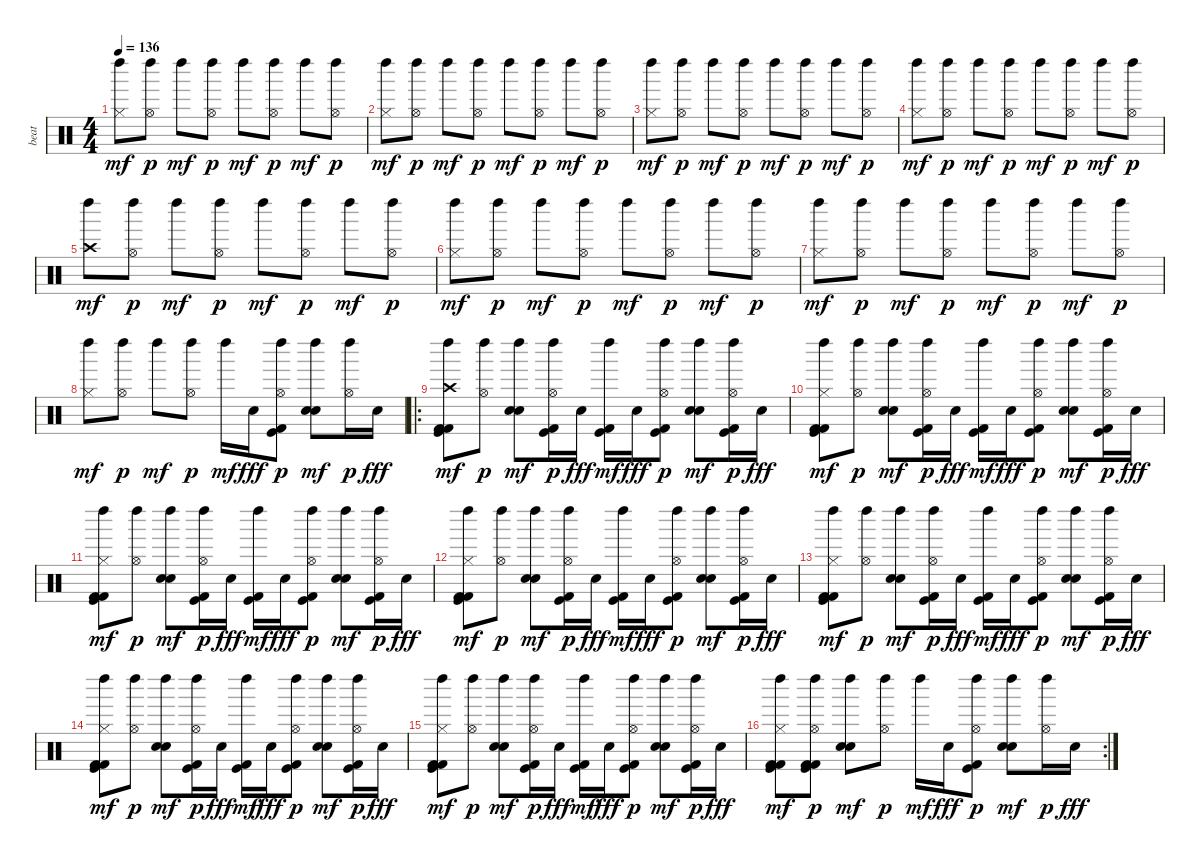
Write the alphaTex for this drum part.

\track ("beat" "beat") {instrument percussion}
\staff {score}
\articulation defaults
\ts (4 4)
\tempo 136
\clef neutral
\ks c
("Hi-Hat (closed)" "Left Maraca (hit)").8{dy mf} ("Hi-Hat (open)" "Left Maraca (hit)").8{dy p} "Left Maraca (hit)".8{dy mf} ("Hi-Hat (open)" "Left Maraca (hit)").8{dy p} "Left Maraca (hit)".8{dy mf} ("Hi-Hat (open)" "Left Maraca (hit)").8{dy p} "Left Maraca (hit)".8{dy mf} ("Hi-Hat (open)" "Left Maraca (hit)").8{dy p} |
("Hi-Hat (closed)" "Left Maraca (hit)").8{dy mf} ("Hi-Hat (open)" "Left Maraca (hit)").8{dy p} "Left Maraca (hit)".8{dy mf} ("Hi-Hat (open)" "Left Maraca (hit)").8{dy p} "Left Maraca (hit)".8{dy mf} ("Hi-Hat (open)" "Left Maraca (hit)").8{dy p} "Left Maraca (hit)".8{dy mf} ("Hi-Hat (open)" "Left Maraca (hit)").8{dy p} |
("Hi-Hat (closed)" "Left Maraca (hit)").8{dy mf} ("Hi-Hat (open)" "Left Maraca (hit)").8{dy p} "Left Maraca (hit)".8{dy mf} ("Hi-Hat (open)" "Left Maraca (hit)").8{dy p} "Left Maraca (hit)".8{dy mf} ("Hi-Hat (open)" "Left Maraca (hit)").8{dy p} "Left Maraca (hit)".8{dy mf} ("Hi-Hat (open)" "Left Maraca (hit)").8{dy p} |
("Hi-Hat (closed)" "Left Maraca (hit)").8{dy mf} ("Hi-Hat (open)" "Left Maraca (hit)").8{dy p} "Left Maraca (hit)".8{dy mf} ("Hi-Hat (open)" "Left Maraca (hit)").8{dy p} "Left Maraca (hit)".8{dy mf} ("Hi-Hat (open)" "Left Maraca (hit)").8{dy p} "Left Maraca (hit)".8{dy mf} ("Hi-Hat (open)" "Left Maraca (hit)").8{dy p} |
("Crash high (hit)" "Left Maraca (hit)").8{dy mf} ("Hi-Hat (open)" "Left Maraca (hit)").8{dy p} "Left Maraca (hit)".8{dy mf} ("Hi-Hat (open)" "Left Maraca (hit)").8{dy p} "Left Maraca (hit)".8{dy mf} ("Hi-Hat (open)" "Left Maraca (hit)").8{dy p} "Left Maraca (hit)".8{dy mf} ("Hi-Hat (open)" "Left Maraca (hit)").8{dy p} |
("Hi-Hat (closed)" "Left Maraca (hit)").8{dy mf} ("Hi-Hat (open)" "Left Maraca (hit)").8{dy p} "Left Maraca (hit)".8{dy mf} ("Hi-Hat (open)" "Left Maraca (hit)").8{dy p} "Left Maraca (hit)".8{dy mf} ("Hi-Hat (open)" "Left Maraca (hit)").8{dy p} "Left Maraca (hit)".8{dy mf} ("Hi-Hat (open)" "Left Maraca (hit)").8{dy p} |
("Hi-Hat (closed)" "Left Maraca (hit)").8{dy mf} ("Hi-Hat (open)" "Left Maraca (hit)").8{dy p} "Left Maraca (hit)".8{dy mf} ("Hi-Hat (open)" "Left Maraca (hit)").8{dy p} "Left Maraca (hit)".8{dy mf} ("Hi-Hat (open)" "Left Maraca (hit)").8{dy p} "Left Maraca (hit)".8{dy mf} ("Hi-Hat (open)" "Left Maraca (hit)").8{dy p} |
("Hi-Hat (closed)" "Left Maraca (hit)").8{dy mf} ("Hi-Hat (open)" "Left Maraca (hit)").8{dy p} "Left Maraca (hit)".8{dy mf} ("Hi-Hat (open)" "Left Maraca (hit)").8{dy p} "Left Maraca (hit)".16{dy mf} "Snare (hit) 2".16{dy fff} ("Hi-Hat (open)" "Kick (hit)" "Kick (hit) 2" "Left Maraca (hit)").8{dy p} ("Snare (hit) 2" "Electric Snare (hit)" "Left Maraca (hit)").8{dy mf} ("Hi-Hat (open)" "Left Maraca (hit)").16{dy p} "Snare (hit) 2".16{dy fff} |
\ro
("Crash high (hit)" "Kick (hit)" "Kick (hit) 2" "Kick (hit) 2" "Left Maraca (hit)").8{dy mf} ("Hi-Hat (open)" "Left Maraca (hit)").8{dy p} ("Snare (hit) 2" "Electric Snare (hit)" "Left Maraca (hit)").8{dy mf} ("Hi-Hat (open)" "Kick (hit)" "Kick (hit) 2" "Left Maraca (hit)").16{dy p} "Snare (hit) 2".16{dy fff} ("Kick (hit)" "Kick (hit) 2" "Left Maraca (hit)").16{dy mf} "Snare (hit) 2".16{dy fff} ("Hi-Hat (open)" "Kick (hit)" "Kick (hit) 2" "Left Maraca (hit)").8{dy p} ("Snare (hit) 2" "Electric Snare (hit)" "Left Maraca (hit)").8{dy mf} ("Hi-Hat (open)" "Kick (hit)" "Kick (hit) 2" "Left Maraca (hit)").16{dy p} "Snare (hit) 2".16{dy fff} |
("Hi-Hat (closed)" "Kick (hit)" "Kick (hit) 2" "Kick (hit) 2" "Left Maraca (hit)").8{dy mf} ("Hi-Hat (open)" "Left Maraca (hit)").8{dy p} ("Snare (hit) 2" "Electric Snare (hit)" "Left Maraca (hit)").8{dy mf} ("Hi-Hat (open)" "Kick (hit)" "Kick (hit) 2" "Left Maraca (hit)").16{dy p} "Snare (hit) 2".16{dy fff} ("Kick (hit)" "Kick (hit) 2" "Left Maraca (hit)").16{dy mf} "Snare (hit) 2".16{dy fff} ("Hi-Hat (open)" "Kick (hit)" "Kick (hit) 2" "Left Maraca (hit)").8{dy p} ("Snare (hit) 2" "Electric Snare (hit)" "Left Maraca (hit)").8{dy mf} ("Hi-Hat (open)" "Kick (hit)" "Kick (hit) 2" "Left Maraca (hit)").16{dy p} "Snare (hit) 2".16{dy fff} |
("Hi-Hat (closed)" "Kick (hit)" "Kick (hit) 2" "Kick (hit) 2" "Left Maraca (hit)").8{dy mf} ("Hi-Hat (open)" "Left Maraca (hit)").8{dy p} ("Snare (hit) 2" "Electric Snare (hit)" "Left Maraca (hit)").8{dy mf} ("Hi-Hat (open)" "Kick (hit)" "Kick (hit) 2" "Left Maraca (hit)").16{dy p} "Snare (hit) 2".16{dy fff} ("Kick (hit)" "Kick (hit) 2" "Left Maraca (hit)").16{dy mf} "Snare (hit) 2".16{dy fff} ("Hi-Hat (open)" "Kick (hit)" "Kick (hit) 2" "Left Maraca (hit)").8{dy p} ("Snare (hit) 2" "Electric Snare (hit)" "Left Maraca (hit)").8{dy mf} ("Hi-Hat (open)" "Kick (hit)" "Kick (hit) 2" "Left Maraca (hit)").16{dy p} "Snare (hit) 2".16{dy fff} |
("Hi-Hat (closed)" "Kick (hit)" "Kick (hit) 2" "Kick (hit) 2" "Left Maraca (hit)").8{dy mf} ("Hi-Hat (open)" "Left Maraca (hit)").8{dy p} ("Snare (hit) 2" "Electric Snare (hit)" "Left Maraca (hit)").8{dy mf} ("Hi-Hat (open)" "Kick (hit)" "Kick (hit) 2" "Left Maraca (hit)").16{dy p} "Snare (hit) 2".16{dy fff} ("Kick (hit)" "Kick (hit) 2" "Left Maraca (hit)").16{dy mf} "Snare (hit) 2".16{dy fff} ("Hi-Hat (open)" "Kick (hit)" "Kick (hit) 2" "Left Maraca (hit)").8{dy p} ("Snare (hit) 2" "Electric Snare (hit)" "Left Maraca (hit)").8{dy mf} ("Hi-Hat (open)" "Kick (hit)" "Kick (hit) 2" "Left Maraca (hit)").16{dy p} "Snare (hit) 2".16{dy fff} |
("Hi-Hat (closed)" "Kick (hit)" "Kick (hit) 2" "Kick (hit) 2" "Left Maraca (hit)").8{dy mf} ("Hi-Hat (open)" "Left Maraca (hit)").8{dy p} ("Snare (hit) 2" "Electric Snare (hit)" "Left Maraca (hit)").8{dy mf} ("Hi-Hat (open)" "Kick (hit)" "Kick (hit) 2" "Left Maraca (hit)").16{dy p} "Snare (hit) 2".16{dy fff} ("Kick (hit)" "Kick (hit) 2" "Left Maraca (hit)").16{dy mf} "Snare (hit) 2".16{dy fff} ("Hi-Hat (open)" "Kick (hit)" "Kick (hit) 2" "Left Maraca (hit)").8{dy p} ("Snare (hit) 2" "Electric Snare (hit)" "Left Maraca (hit)").8{dy mf} ("Hi-Hat (open)" "Kick (hit)" "Kick (hit) 2" "Left Maraca (hit)").16{dy p} "Snare (hit) 2".16{dy fff} |
("Hi-Hat (closed)" "Kick (hit)" "Kick (hit) 2" "Kick (hit) 2" "Left Maraca (hit)").8{dy mf} ("Hi-Hat (open)" "Left Maraca (hit)").8{dy p} ("Snare (hit) 2" "Electric Snare (hit)" "Left Maraca (hit)").8{dy mf} ("Hi-Hat (open)" "Kick (hit)" "Kick (hit) 2" "Left Maraca (hit)").16{dy p} "Snare (hit) 2".16{dy fff} ("Kick (hit)" "Kick (hit) 2" "Left Maraca (hit)").16{dy mf} "Snare (hit) 2".16{dy fff} ("Hi-Hat (open)" "Kick (hit)" "Kick (hit) 2" "Left Maraca (hit)").8{dy p} ("Snare (hit) 2" "Electric Snare (hit)" "Left Maraca (hit)").8{dy mf} ("Hi-Hat (open)" "Kick (hit)" "Kick (hit) 2" "Left Maraca (hit)").16{dy p} "Snare (hit) 2".16{dy fff} |
("Hi-Hat (closed)" "Kick (hit)" "Kick (hit) 2" "Kick (hit) 2" "Left Maraca (hit)").8{dy mf} ("Hi-Hat (open)" "Left Maraca (hit)").8{dy p} ("Snare (hit) 2" "Electric Snare (hit)" "Left Maraca (hit)").8{dy mf} ("Hi-Hat (open)" "Kick (hit)" "Kick (hit) 2" "Left Maraca (hit)").16{dy p} "Snare (hit) 2".16{dy fff} ("Kick (hit)" "Kick (hit) 2" "Left Maraca (hit)").16{dy mf} "Snare (hit) 2".16{dy fff} ("Hi-Hat (open)" "Kick (hit)" "Kick (hit) 2" "Left Maraca (hit)").8{dy p} ("Snare (hit) 2" "Electric Snare (hit)" "Left Maraca (hit)").8{dy mf} ("Hi-Hat (open)" "Kick (hit)" "Kick (hit) 2" "Left Maraca (hit)").16{dy p} "Snare (hit) 2".16{dy fff} |
\rc 2
("Hi-Hat (closed)" "Kick (hit)" "Kick (hit) 2" "Kick (hit) 2" "Left Maraca (hit)").8{dy mf} ("Hi-Hat (open)" "Kick (hit)" "Kick (hit) 2" "Kick (hit) 2" "Left Maraca (hit)").8{dy p} ("Snare (hit) 2" "Electric Snare (hit)" "Left Maraca (hit)").8{dy mf} ("Hi-Hat (open)" "Left Maraca (hit)").8{dy p} "Left Maraca (hit)".16{dy mf} "Snare (hit) 2".16{dy fff} ("Hi-Hat (open)" "Kick (hit)" "Kick (hit) 2" "Left Maraca (hit)").8{dy p} ("Snare (hit) 2" "Electric Snare (hit)" "Left Maraca (hit)").8{dy mf} ("Hi-Hat (open)" "Left Maraca (hit)").16{dy p} "Snare (hit) 2".16{dy fff}
